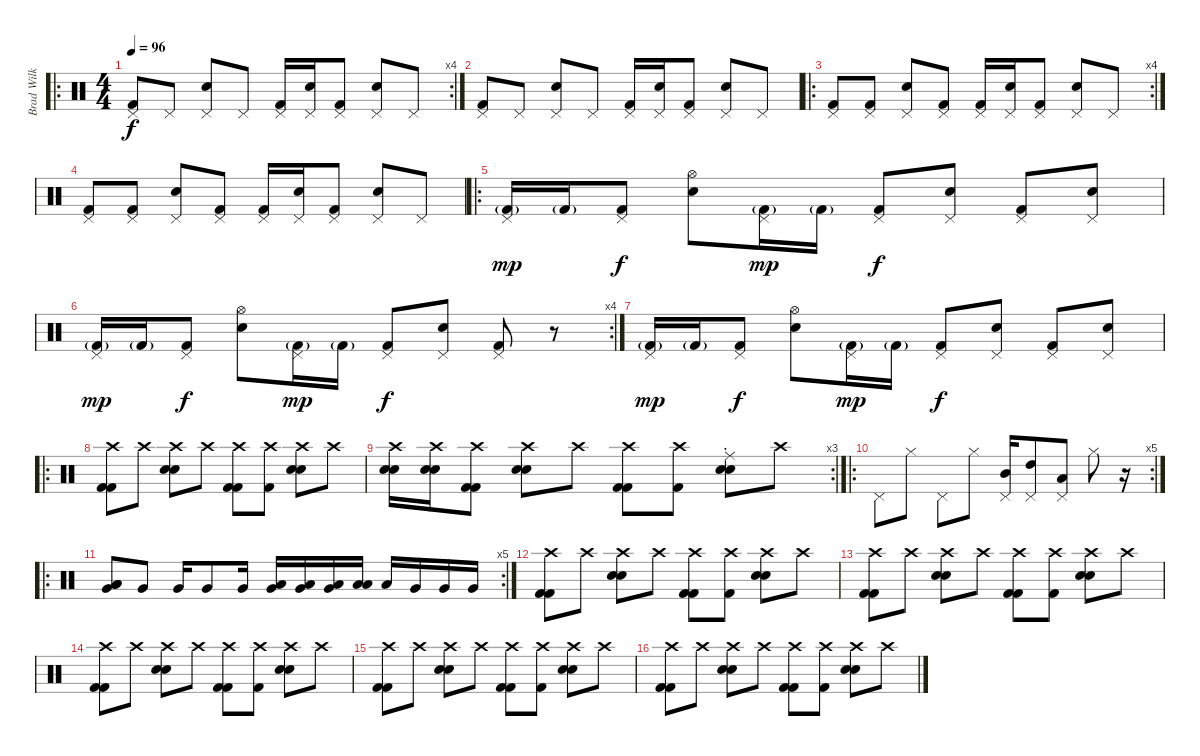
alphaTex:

\track ("Brad Wilk" "Brad Wilk") {instrument percussion}
\staff {score}
\articulation defaults
\ro
\rc 4
\ts (4 4)
\tempo 96
\clef neutral
\ks c
("Pedal Hi-Hat (hit)" "Kick (hit) 2").8{dy f} "Pedal Hi-Hat (hit)".8 ("Pedal Hi-Hat (hit)" "Electric Snare (hit)").8 "Pedal Hi-Hat (hit)".8 ("Pedal Hi-Hat (hit)" "Kick (hit) 2").16 ("Pedal Hi-Hat (hit)" "Electric Snare (hit)").16 ("Pedal Hi-Hat (hit)" "Kick (hit) 2").8 ("Pedal Hi-Hat (hit)" "Electric Snare (hit)").8 "Pedal Hi-Hat (hit)".8 |
("Pedal Hi-Hat (hit)" "Kick (hit) 2").8 "Pedal Hi-Hat (hit)".8 ("Pedal Hi-Hat (hit)" "Electric Snare (hit)").8 "Pedal Hi-Hat (hit)".8 ("Pedal Hi-Hat (hit)" "Kick (hit) 2").16 ("Pedal Hi-Hat (hit)" "Electric Snare (hit)").16 ("Pedal Hi-Hat (hit)" "Kick (hit) 2").8 ("Pedal Hi-Hat (hit)" "Electric Snare (hit)").8 "Pedal Hi-Hat (hit)".8 |
\ro
\rc 4
("Pedal Hi-Hat (hit)" "Kick (hit) 2").8 ("Pedal Hi-Hat (hit)" "Kick (hit) 2").8 ("Pedal Hi-Hat (hit)" "Electric Snare (hit)").8 ("Pedal Hi-Hat (hit)" "Kick (hit) 2").8 ("Pedal Hi-Hat (hit)" "Kick (hit) 2").16 ("Pedal Hi-Hat (hit)" "Electric Snare (hit)").16 ("Pedal Hi-Hat (hit)" "Kick (hit) 2").8 ("Pedal Hi-Hat (hit)" "Electric Snare (hit)").8 "Pedal Hi-Hat (hit)".8 |
("Pedal Hi-Hat (hit)" "Kick (hit) 2").8 ("Pedal Hi-Hat (hit)" "Kick (hit) 2").8 ("Pedal Hi-Hat (hit)" "Electric Snare (hit)").8 ("Pedal Hi-Hat (hit)" "Kick (hit) 2").8 ("Pedal Hi-Hat (hit)" "Kick (hit) 2").16 ("Pedal Hi-Hat (hit)" "Electric Snare (hit)").16 ("Pedal Hi-Hat (hit)" "Kick (hit) 2").8 ("Pedal Hi-Hat (hit)" "Electric Snare (hit)").8 "Pedal Hi-Hat (hit)".8 |
\ro
("Pedal Hi-Hat (hit)" "Kick (hit) 2"{g}).16{dy mp} "Kick (hit) 2"{g}.16 ("Pedal Hi-Hat (hit)" "Kick (hit) 2").8{dy f} ("Hi-Hat (open)" "Electric Snare (hit)").8 ("Pedal Hi-Hat (hit)" "Kick (hit) 2"{g}).16{dy mp} "Kick (hit) 2"{g}.16 ("Pedal Hi-Hat (hit)" "Kick (hit) 2").8{dy f} ("Pedal Hi-Hat (hit)" "Electric Snare (hit)").8 ("Pedal Hi-Hat (hit)" "Kick (hit) 2").8 ("Pedal Hi-Hat (hit)" "Electric Snare (hit)").8 |
\rc 4
("Pedal Hi-Hat (hit)" "Kick (hit) 2"{g}).16{dy mp} "Kick (hit) 2"{g}.16 ("Pedal Hi-Hat (hit)" "Kick (hit) 2").8{dy f} ("Hi-Hat (open)" "Electric Snare (hit)").8 ("Pedal Hi-Hat (hit)" "Kick (hit) 2"{g}).16{dy mp} "Kick (hit) 2"{g}.16 ("Pedal Hi-Hat (hit)" "Kick (hit) 2").8{dy f} ("Pedal Hi-Hat (hit)" "Electric Snare (hit)").8 ("Pedal Hi-Hat (hit)" "Kick (hit) 2").8 r.8 |
("Pedal Hi-Hat (hit)" "Kick (hit) 2"{g}).16{dy mp} "Kick (hit) 2"{g}.16 ("Pedal Hi-Hat (hit)" "Kick (hit) 2").8{dy f} ("Hi-Hat (open)" "Electric Snare (hit)").8 ("Pedal Hi-Hat (hit)" "Kick (hit) 2"{g}).16{dy mp} "Kick (hit) 2"{g}.16 ("Pedal Hi-Hat (hit)" "Kick (hit) 2").8{dy f} ("Pedal Hi-Hat (hit)" "Electric Snare (hit)").8 ("Pedal Hi-Hat (hit)" "Kick (hit) 2").8 ("Pedal Hi-Hat (hit)" "Electric Snare (hit)").8 |
\ro
("Crash high (hit)" "Kick (hit) 2" "Kick (hit) 2").8 "Crash high (hit)".8 ("Crash high (hit)" "Electric Snare (hit)" "Electric Snare (hit)").8 "Crash high (hit)".8 ("Crash high (hit)" "Kick (hit) 2" "Kick (hit) 2").8 ("Crash high (hit)" "Kick (hit) 2").8 ("Crash high (hit)" "Electric Snare (hit)" "Electric Snare (hit)").8 "Crash high (hit)".8 |
\rc 3
("Crash high (hit)" "Electric Snare (hit)" "Electric Snare (hit)").16{volume 11} ("Crash high (hit)" "Electric Snare (hit)" "Electric Snare (hit)").16 ("Crash high (hit)" "Kick (hit) 2" "Kick (hit) 2").8 ("Crash high (hit)" "Electric Snare (hit)" "Electric Snare (hit)").8 "Crash high (hit)".8 ("Crash high (hit)" "Kick (hit) 2" "Kick (hit) 2").8 ("Crash high (hit)" "Kick (hit) 2").8 ("Ride (choke)" "Electric Snare (hit)" "Electric Snare (hit)").8 "Crash high (hit)".8 |
\ro
\rc 5 "Pedal Hi-Hat (hit)".8 "Hi-Hat (closed)".8 "Pedal Hi-Hat (hit)".8 "Hi-Hat (closed)".8
("Pedal Hi-Hat (hit)" "Mid Tom (hit)").16 ("Pedal Hi-Hat (hit)" "High Tom (hit)").8 ("Pedal Hi-Hat (hit)" "Low Floor Tom (hit)").8 "Hi-Hat (closed)".8 r.16 |
\ro
\rc 5
("Low Floor Tom (hit)" "Very Low Tom (hit)" "Low Floor Tom (hit)").8 "Very Low Tom (hit)".8 "Very Low Tom (hit)".16 "Very Low Tom (hit)".8 "Very Low Tom (hit)".16 ("Low Tom (hit)" "Very Low Tom (hit)").16 ("Low Tom (hit)" "Very Low Tom (hit)").16 ("Low Tom (hit)" "Very Low Tom (hit)").16 ("Low Tom (hit)" "Low Tom (hit)").16 "Low Tom (hit)".16 "Very Low Tom (hit)".16 "Very Low Tom (hit)".16 "Very Low Tom (hit)".16 |
("Crash high (hit)" "Kick (hit) 2" "Kick (hit) 2").8 "Crash high (hit)".8 ("Crash high (hit)" "Electric Snare (hit)" "Electric Snare (hit)").8 "Crash high (hit)".8 ("Crash high (hit)" "Kick (hit) 2" "Kick (hit) 2").8 ("Crash high (hit)" "Kick (hit) 2").8 ("Crash high (hit)" "Electric Snare (hit)" "Electric Snare (hit)").8 "Crash high (hit)".8 |
("Crash high (hit)" "Kick (hit) 2" "Kick (hit) 2").8 "Crash high (hit)".8 ("Crash high (hit)" "Electric Snare (hit)" "Electric Snare (hit)").8 "Crash high (hit)".8 ("Crash high (hit)" "Kick (hit) 2" "Kick (hit) 2").8 ("Crash high (hit)" "Kick (hit) 2").8 ("Crash high (hit)" "Electric Snare (hit)" "Electric Snare (hit)").8 "Crash high (hit)".8 |
("Crash high (hit)" "Kick (hit) 2" "Kick (hit) 2").8 "Crash high (hit)".8 ("Crash high (hit)" "Electric Snare (hit)" "Electric Snare (hit)").8 "Crash high (hit)".8 ("Crash high (hit)" "Kick (hit) 2" "Kick (hit) 2").8 ("Crash high (hit)" "Kick (hit) 2").8 ("Crash high (hit)" "Electric Snare (hit)" "Electric Snare (hit)").8 "Crash high (hit)".8 |
("Crash high (hit)" "Kick (hit) 2" "Kick (hit) 2").8 "Crash high (hit)".8 ("Crash high (hit)" "Electric Snare (hit)" "Electric Snare (hit)").8 "Crash high (hit)".8 ("Crash high (hit)" "Kick (hit) 2" "Kick (hit) 2").8 ("Crash high (hit)" "Kick (hit) 2").8 ("Crash high (hit)" "Electric Snare (hit)" "Electric Snare (hit)").8 "Crash high (hit)".8 |
("Crash high (hit)" "Kick (hit) 2" "Kick (hit) 2").8 "Crash high (hit)".8 ("Crash high (hit)" "Electric Snare (hit)" "Electric Snare (hit)").8 "Crash high (hit)".8 ("Crash high (hit)" "Kick (hit) 2" "Kick (hit) 2").8 ("Crash high (hit)" "Kick (hit) 2").8 ("Crash high (hit)" "Electric Snare (hit)" "Electric Snare (hit)").8 "Crash high (hit)".8
